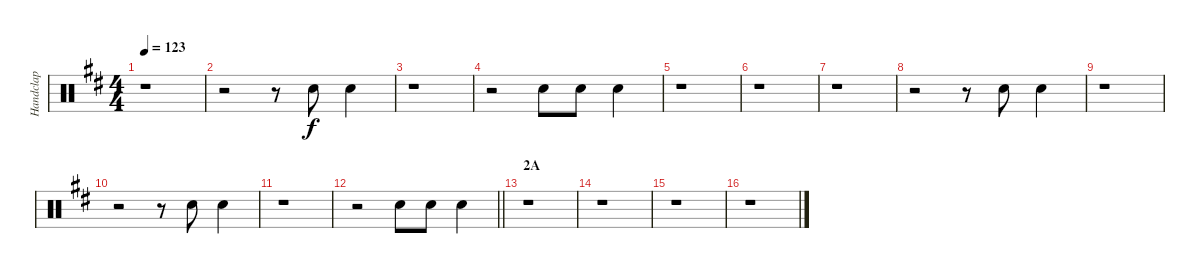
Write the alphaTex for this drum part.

\track ("Handclap" "Handclap") {instrument percussion}
\staff {score}
\articulation defaults
\ts (4 4)
\tempo 123
\clef neutral
\ks d
r.1{dy f} |
r.2 r.8 "Hand Clap (hit)".8 "Hand Clap (hit)".4 |
r.1 |
r.2 "Hand Clap (hit)".8 "Hand Clap (hit)".8 "Hand Clap (hit)".4 |
r.1 |
r.1 |
r.1 |
r.2 r.8 "Hand Clap (hit)".8 "Hand Clap (hit)".4 |
r.1 |
r.2 r.8 "Hand Clap (hit)".8 "Hand Clap (hit)".4 |
r.1 |
\barLineRight lightlight
r.2 "Hand Clap (hit)".8 "Hand Clap (hit)".8 "Hand Clap (hit)".4 |
\section ("" "2A")
r.1 |
r.1 |
r.1 |
r.1
